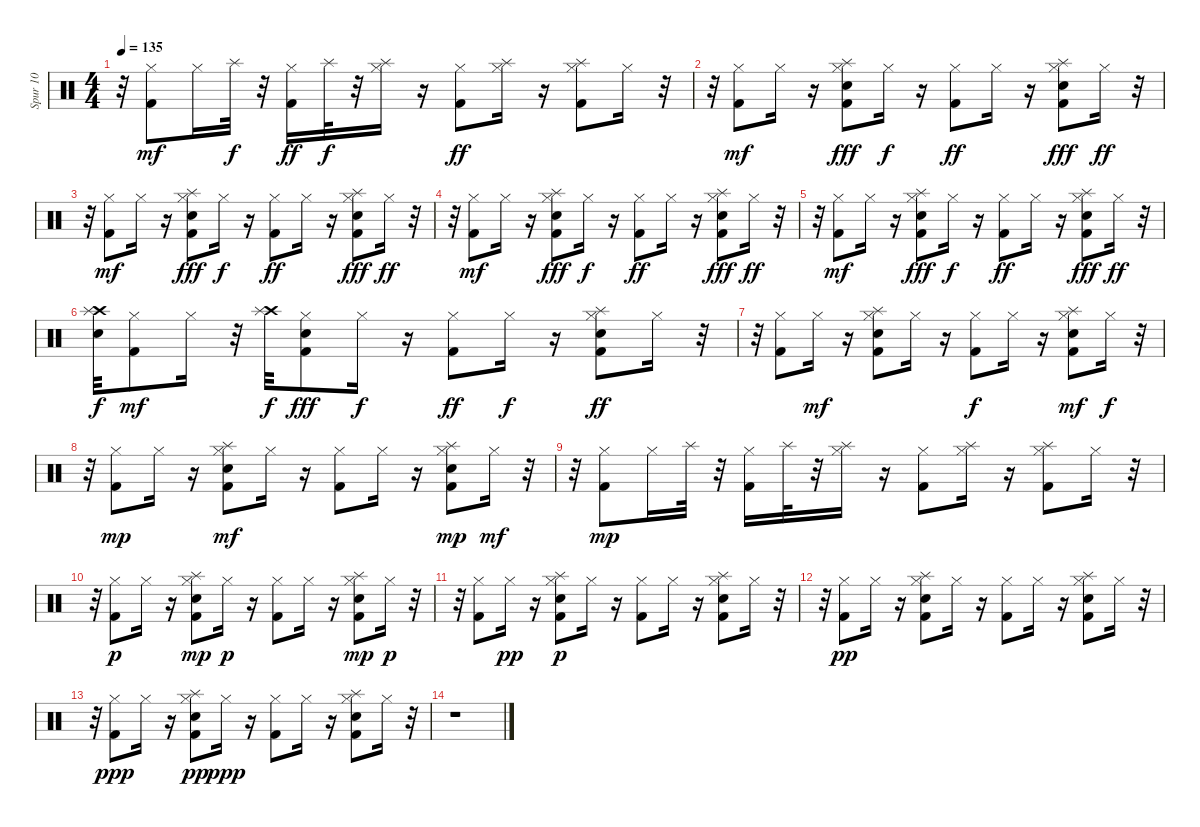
\track ("Spur 10" "Spur 10") {instrument percussion}
\staff {score}
\articulation defaults
\ts (4 4)
\tempo 135
\clef neutral
\ks c
r.32{dy ff} ("Kick (hit) 2" "Hi-Hat (closed)").8{dy mf} "Hi-Hat (closed)".16 "Splash (hit)".32{dy f} r.32 ("Kick (hit) 2" "Hi-Hat (closed)").16{dy ff} "Splash (hit)".32{dy f} r.32 ("Hi-Hat (closed)" "Splash (hit)").16 r.16 ("Kick (hit) 2" "Hi-Hat (closed)").8{dy ff} ("Hi-Hat (closed)" "Splash (hit)").16 r.16 ("Kick (hit) 2" "Hi-Hat (closed)" "Splash (hit)").8 "Hi-Hat (closed)".16 r.32 |
r.32 ("Kick (hit) 2" "Hi-Hat (closed)").8{dy mf} "Hi-Hat (closed)".16 r.16 ("Kick (hit) 2" "Hi-Hat (closed)" "Splash (hit)" "Snare (hit) 2").8{dy fff} "Hi-Hat (closed)".16{dy f} r.16 ("Kick (hit) 2" "Hi-Hat (closed)").8{dy ff} "Hi-Hat (closed)".16 r.16 ("Kick (hit) 2" "Hi-Hat (closed)" "Splash (hit)" "Snare (hit) 2").8{dy fff} "Hi-Hat (closed)".16{dy ff} r.32 |
r.32 ("Kick (hit) 2" "Hi-Hat (closed)").8{dy mf} "Hi-Hat (closed)".16 r.16 ("Kick (hit) 2" "Hi-Hat (closed)" "Snare (hit) 2" "Splash (hit)").8{dy fff} "Hi-Hat (closed)".16{dy f} r.16 ("Kick (hit) 2" "Hi-Hat (closed)").8{dy ff} "Hi-Hat (closed)".16 r.16 ("Kick (hit) 2" "Hi-Hat (closed)" "Snare (hit) 2" "Splash (hit)").8{dy fff} "Hi-Hat (closed)".16{dy ff} r.32 |
r.32 ("Kick (hit) 2" "Hi-Hat (closed)").8{dy mf} "Hi-Hat (closed)".16 r.16 ("Kick (hit) 2" "Hi-Hat (closed)" "Snare (hit) 2" "Splash (hit)").8{dy fff} "Hi-Hat (closed)".16{dy f} r.16 ("Kick (hit) 2" "Hi-Hat (closed)").8{dy ff} "Hi-Hat (closed)".16 r.16 ("Kick (hit) 2" "Hi-Hat (closed)" "Snare (hit) 2" "Splash (hit)").8{dy fff} "Hi-Hat (closed)".16{dy ff} r.32 |
r.32 ("Kick (hit) 2" "Hi-Hat (closed)").8{dy mf} "Hi-Hat (closed)".16 r.16 ("Kick (hit) 2" "Hi-Hat (closed)" "Snare (hit) 2" "Splash (hit)").8{dy fff} "Hi-Hat (closed)".16{dy f} r.16 ("Kick (hit) 2" "Hi-Hat (closed)").8{dy ff} "Hi-Hat (closed)".16 r.16 ("Kick (hit) 2" "Hi-Hat (closed)" "Snare (hit) 2" "Splash (hit)").8{dy fff} "Hi-Hat (closed)".16{dy ff} r.32 |
("Crash high (hit)" "Snare (hit) 2" "Splash (hit)").32{dy f} ("Kick (hit) 2" "Hi-Hat (closed)").8{dy mf} "Hi-Hat (closed)".16 r.32 ("Crash high (hit)" "Splash (hit)").32{dy f} ("Kick (hit) 2" "Hi-Hat (closed)" "Snare (hit) 2").8{dy fff} "Hi-Hat (closed)".16{dy f} r.16 ("Kick (hit) 2" "Hi-Hat (closed)").8{dy ff} "Hi-Hat (closed)".16{dy f} r.16 ("Kick (hit) 2" "Hi-Hat (closed)" "Splash (hit)" "Snare (hit) 2").8{dy ff} "Hi-Hat (closed)".16 r.32 |
r.32 ("Hi-Hat (closed)" "Kick (hit) 2").8 "Hi-Hat (closed)".16{dy mf} r.16 ("Hi-Hat (closed)" "Kick (hit) 2" "Snare (hit) 2" "Splash (hit)").8 "Hi-Hat (closed)".16 r.16 ("Hi-Hat (closed)" "Kick (hit) 2").8{dy f} "Hi-Hat (closed)".16 r.16 ("Hi-Hat (closed)" "Kick (hit) 2" "Snare (hit) 2" "Splash (hit)").8{dy mf} "Hi-Hat (closed)".16{dy f} r.32 |
r.32 ("Kick (hit) 2" "Hi-Hat (closed)").8{dy mp} "Hi-Hat (closed)".16 r.16 ("Kick (hit) 2" "Hi-Hat (closed)" "Snare (hit) 2" "Splash (hit)").8{dy mf} "Hi-Hat (closed)".16 r.16 ("Kick (hit) 2" "Hi-Hat (closed)").8 "Hi-Hat (closed)".16 r.16 ("Kick (hit) 2" "Hi-Hat (closed)" "Snare (hit) 2" "Splash (hit)").8{dy mp} "Hi-Hat (closed)".16{dy mf} r.32 |
r.32 ("Kick (hit) 2" "Hi-Hat (closed)").8{dy mp} "Hi-Hat (closed)".16 "Splash (hit)".32 r.32 ("Kick (hit) 2" "Hi-Hat (closed)").16 "Splash (hit)".32 r.32 ("Hi-Hat (closed)" "Splash (hit)").16 r.16 ("Kick (hit) 2" "Hi-Hat (closed)").8 ("Hi-Hat (closed)" "Splash (hit)").16 r.16 ("Kick (hit) 2" "Hi-Hat (closed)" "Splash (hit)").8 "Hi-Hat (closed)".16 r.32 |
r.32 ("Kick (hit) 2" "Hi-Hat (closed)").8{dy p} "Hi-Hat (closed)".16 r.16 ("Kick (hit) 2" "Hi-Hat (closed)" "Splash (hit)" "Snare (hit) 2").8{dy mp} "Hi-Hat (closed)".16{dy p} r.16 ("Kick (hit) 2" "Hi-Hat (closed)").8 "Hi-Hat (closed)".16 r.16 ("Kick (hit) 2" "Hi-Hat (closed)" "Splash (hit)" "Snare (hit) 2").8{dy mp} "Hi-Hat (closed)".16{dy p} r.32 |
r.32 ("Hi-Hat (closed)" "Kick (hit) 2").8 "Hi-Hat (closed)".16{dy pp} r.16 ("Hi-Hat (closed)" "Kick (hit) 2" "Splash (hit)" "Snare (hit) 2").8{dy p} "Hi-Hat (closed)".16 r.16 ("Hi-Hat (closed)" "Kick (hit) 2").8 "Hi-Hat (closed)".16 r.16 ("Hi-Hat (closed)" "Kick (hit) 2" "Splash (hit)" "Snare (hit) 2").8 "Hi-Hat (closed)".16 r.32 |
r.32 ("Kick (hit) 2" "Hi-Hat (closed)").8{dy pp} "Hi-Hat (closed)".16 r.16 ("Kick (hit) 2" "Hi-Hat (closed)" "Snare (hit) 2" "Splash (hit)").8 "Hi-Hat (closed)".16 r.16 ("Kick (hit) 2" "Hi-Hat (closed)").8 "Hi-Hat (closed)".16 r.16 ("Kick (hit) 2" "Hi-Hat (closed)" "Snare (hit) 2" "Splash (hit)").8 "Hi-Hat (closed)".16 r.32 |
r.32 ("Kick (hit) 2" "Hi-Hat (closed)").8{dy ppp} "Hi-Hat (closed)".16 r.16 ("Kick (hit) 2" "Hi-Hat (closed)" "Splash (hit)" "Snare (hit) 2").8{dy pp} "Hi-Hat (closed)".16{dy ppp} r.16 ("Kick (hit) 2" "Hi-Hat (closed)").8 "Hi-Hat (closed)".16 r.16 ("Kick (hit) 2" "Hi-Hat (closed)" "Splash (hit)" "Snare (hit) 2").8 "Hi-Hat (closed)".16 r.32 |
r.1
